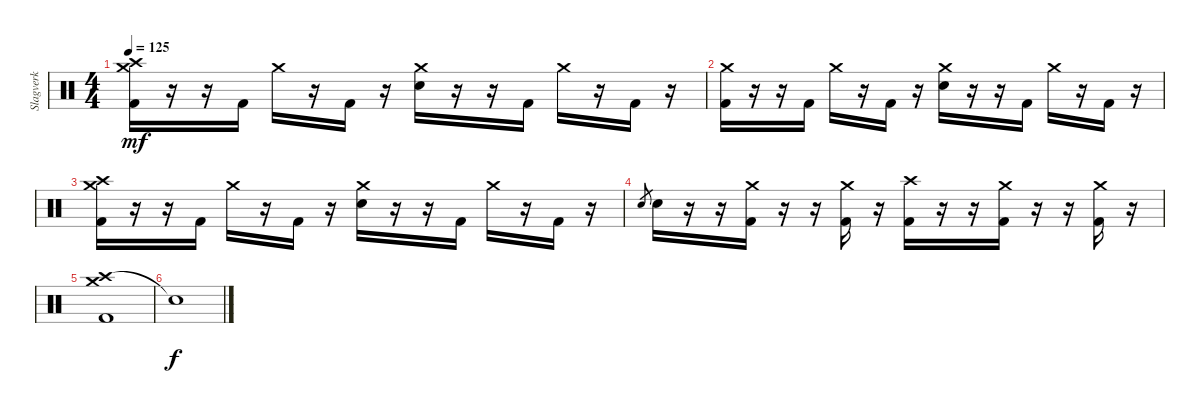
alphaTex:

\track ("Slagverk" "Slagverk") {instrument percussion}
\staff {score}
\articulation defaults
\ts (4 4)
\tempo 125
\clef neutral
\ks c
("Crash medium (hit)" "Crash high (hit)" "Kick (hit) 2").16{dy mf} r.16 r.16 "Kick (hit) 2".16 "Crash medium (hit)".16 r.16 "Kick (hit) 2".16 r.16 ("Crash medium (hit)" "Electric Snare (hit)").16 r.16 r.16 "Kick (hit) 2".16 "Crash medium (hit)".16 r.16 "Kick (hit) 2".16 r.16 |
("Crash medium (hit)" "Kick (hit) 2").16 r.16 r.16 "Kick (hit) 2".16 "Crash medium (hit)".16 r.16 "Kick (hit) 2".16 r.16 ("Crash medium (hit)" "Electric Snare (hit)").16 r.16 r.16 "Kick (hit) 2".16 "Crash medium (hit)".16 r.16 "Kick (hit) 2".16 r.16 |
("Crash medium (hit)" "Crash high (hit)" "Kick (hit) 2").16 r.16 r.16 "Kick (hit) 2".16 "Crash medium (hit)".16 r.16 "Kick (hit) 2".16 r.16 ("Crash medium (hit)" "Electric Snare (hit)").16 r.16 r.16 "Kick (hit) 2".16 "Crash medium (hit)".16 r.16 "Kick (hit) 2".16 r.16 |
"Electric Snare (hit)".8{gr} "Electric Snare (hit)".16 r.16 r.16 ("Crash medium (hit)" "Kick (hit) 2").16 r.16 r.16 ("Crash medium (hit)" "Kick (hit) 2").16 r.16 ("Crash high (hit)" "Kick (hit) 2").16 r.16 r.16 ("Crash medium (hit)" "Kick (hit) 2").16 r.16 r.16 ("Crash medium (hit)" "Kick (hit) 2").16 r.16 |
("Crash high (hit)" "Crash medium (hit)" "Kick (hit) 2").1 |
"Snare (hit)"{t}.1{dy f}
